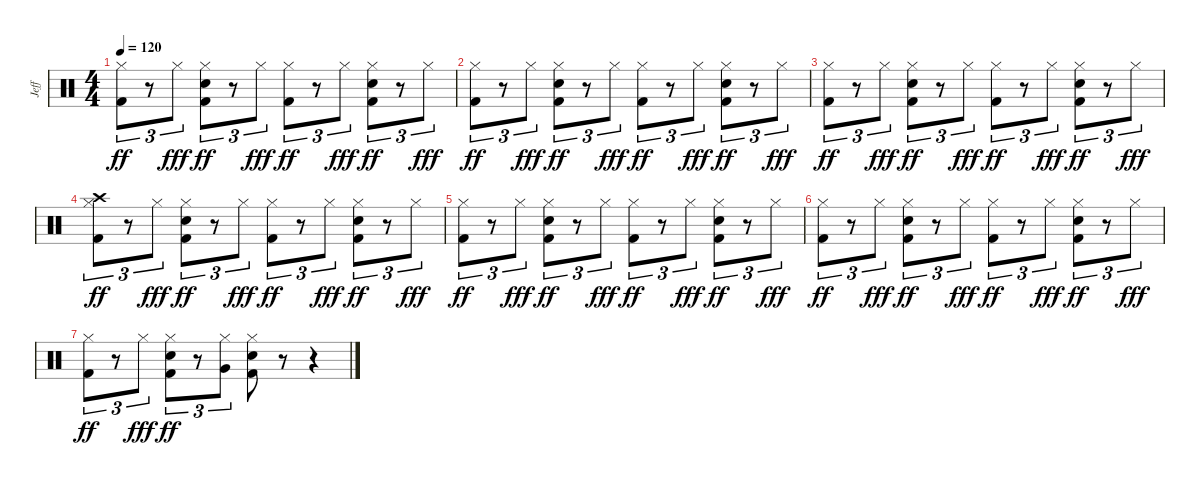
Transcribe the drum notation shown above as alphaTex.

\track ("Jeff" "Jeff") {instrument percussion}
\staff {score}
\articulation defaults
\ts (4 4)
\tempo 120
\clef neutral
\ks c
("Hi-Hat (closed)" "Kick (hit) 2").8{tu (3 2) dy ff} r.8{tu (3 2)} "Hi-Hat (closed)".8{tu (3 2) dy fff} ("Hi-Hat (closed)" "Snare (hit) 2" "Kick (hit) 2").8{tu (3 2) dy ff} r.8{tu (3 2)} "Hi-Hat (closed)".8{tu (3 2) dy fff} ("Hi-Hat (closed)" "Kick (hit) 2").8{tu (3 2) dy ff} r.8{tu (3 2)} "Hi-Hat (closed)".8{tu (3 2) dy fff} ("Hi-Hat (closed)" "Snare (hit) 2" "Kick (hit) 2").8{tu (3 2) dy ff} r.8{tu (3 2)} "Hi-Hat (closed)".8{tu (3 2) dy fff} |
("Hi-Hat (closed)" "Kick (hit) 2").8{tu (3 2) dy ff} r.8{tu (3 2)} "Hi-Hat (closed)".8{tu (3 2) dy fff} ("Hi-Hat (closed)" "Snare (hit) 2" "Kick (hit) 2").8{tu (3 2) dy ff} r.8{tu (3 2)} "Hi-Hat (closed)".8{tu (3 2) dy fff} ("Hi-Hat (closed)" "Kick (hit) 2").8{tu (3 2) dy ff} r.8{tu (3 2)} "Hi-Hat (closed)".8{tu (3 2) dy fff} ("Hi-Hat (closed)" "Snare (hit) 2" "Kick (hit) 2").8{tu (3 2) dy ff} r.8{tu (3 2)} "Hi-Hat (closed)".8{tu (3 2) dy fff} |
("Hi-Hat (closed)" "Kick (hit) 2").8{tu (3 2) dy ff} r.8{tu (3 2)} "Hi-Hat (closed)".8{tu (3 2) dy fff} ("Hi-Hat (closed)" "Snare (hit) 2" "Kick (hit) 2").8{tu (3 2) dy ff} r.8{tu (3 2)} "Hi-Hat (closed)".8{tu (3 2) dy fff} ("Hi-Hat (closed)" "Kick (hit) 2").8{tu (3 2) dy ff} r.8{tu (3 2)} "Hi-Hat (closed)".8{tu (3 2) dy fff} ("Hi-Hat (closed)" "Snare (hit) 2" "Kick (hit) 2").8{tu (3 2) dy ff} r.8{tu (3 2)} "Hi-Hat (closed)".8{tu (3 2) dy fff} |
("Crash high (hit)" "Hi-Hat (closed)" "Kick (hit) 2").8{tu (3 2) dy ff} r.8{tu (3 2)} "Hi-Hat (closed)".8{tu (3 2) dy fff} ("Hi-Hat (closed)" "Snare (hit) 2" "Kick (hit) 2").8{tu (3 2) dy ff} r.8{tu (3 2)} "Hi-Hat (closed)".8{tu (3 2) dy fff} ("Hi-Hat (closed)" "Kick (hit) 2").8{tu (3 2) dy ff} r.8{tu (3 2)} "Hi-Hat (closed)".8{tu (3 2) dy fff} ("Hi-Hat (closed)" "Snare (hit) 2" "Kick (hit) 2").8{tu (3 2) dy ff} r.8{tu (3 2)} "Hi-Hat (closed)".8{tu (3 2) dy fff} |
("Hi-Hat (closed)" "Kick (hit) 2").8{tu (3 2) dy ff} r.8{tu (3 2)} "Hi-Hat (closed)".8{tu (3 2) dy fff} ("Hi-Hat (closed)" "Snare (hit) 2" "Kick (hit) 2").8{tu (3 2) dy ff} r.8{tu (3 2)} "Hi-Hat (closed)".8{tu (3 2) dy fff} ("Hi-Hat (closed)" "Kick (hit) 2").8{tu (3 2) dy ff} r.8{tu (3 2)} "Hi-Hat (closed)".8{tu (3 2) dy fff} ("Hi-Hat (closed)" "Snare (hit) 2" "Kick (hit) 2").8{tu (3 2) dy ff} r.8{tu (3 2)} "Hi-Hat (closed)".8{tu (3 2) dy fff} |
("Hi-Hat (closed)" "Kick (hit) 2").8{tu (3 2) dy ff} r.8{tu (3 2)} "Hi-Hat (closed)".8{tu (3 2) dy fff} ("Hi-Hat (closed)" "Snare (hit) 2" "Kick (hit) 2").8{tu (3 2) dy ff} r.8{tu (3 2)} "Hi-Hat (closed)".8{tu (3 2) dy fff} ("Hi-Hat (closed)" "Kick (hit) 2").8{tu (3 2) dy ff} r.8{tu (3 2)} "Hi-Hat (closed)".8{tu (3 2) dy fff} ("Hi-Hat (closed)" "Snare (hit) 2" "Kick (hit) 2").8{tu (3 2) dy ff} r.8{tu (3 2)} "Hi-Hat (closed)".8{tu (3 2) dy fff} |
("Hi-Hat (closed)" "Kick (hit) 2").8{tu (3 2) dy ff} r.8{tu (3 2)} "Hi-Hat (closed)".8{tu (3 2) dy fff} ("Hi-Hat (closed)" "Snare (hit) 2" "Kick (hit) 2").8{tu (3 2) dy ff} r.8{tu (3 2)} ("Hi-Hat (closed)" "Very Low Tom (hit)").8{tu (3 2)} ("Hi-Hat (closed)" "Snare (hit) 2" "Kick (hit) 2").8 r.8 r.4
